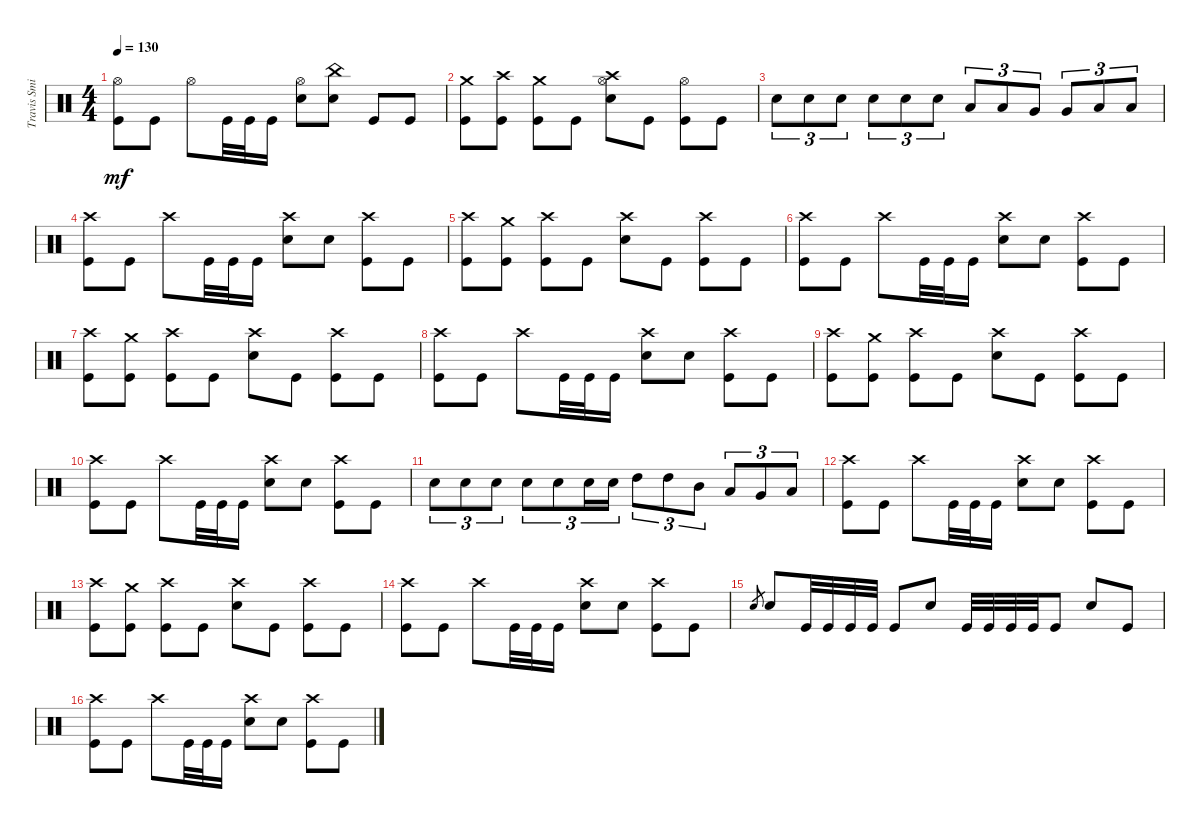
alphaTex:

\track ("Travis Smith" "Travis Smi") {instrument percussion}
\staff {score}
\articulation defaults
\ts (4 4)
\tempo 130
\clef neutral
\ks c
("Hi-Hat (open)" "Kick (hit)").8{dy mf} "Kick (hit)".8 "Hi-Hat (open)".8 "Kick (hit)".32 "Kick (hit)".32 "Kick (hit)".16 ("Hi-Hat (open)" "Snare (hit) 2").8 ("China (hit)" "Snare (hit) 2").8 "Kick (hit)".8 "Kick (hit)".8 |
("Crash medium (hit)" "Kick (hit)").8 ("Crash high (hit)" "Kick (hit)").8 ("Crash medium (hit)" "Kick (hit)").8 "Kick (hit)".8 ("Crash high (hit)" "Hi-Hat (open)" "Snare (hit) 2").8 "Kick (hit)".8 ("Hi-Hat (open)" "Kick (hit)").8 "Kick (hit)".8 |
"Snare (hit) 2".8{tu (3 2)} "Snare (hit) 2".8{tu (3 2)} "Snare (hit) 2".8{tu (3 2)} "Snare (hit) 2".8{tu (3 2)} "Snare (hit) 2".8{tu (3 2)} "Snare (hit) 2".8{tu (3 2)} "Low Tom (hit)".8{tu (3 2)} "Low Tom (hit)".8{tu (3 2)} "Very Low Tom (hit)".8{tu (3 2)} "Very Low Tom (hit)".8{tu (3 2)} "Low Floor Tom (hit)".8{tu (3 2)} "Low Floor Tom (hit)".8{tu (3 2)} |
("Crash high (hit)" "Kick (hit)").8 "Kick (hit)".8 "Crash high (hit)".8 "Kick (hit)".32 "Kick (hit)".32 "Kick (hit)".16 ("Crash high (hit)" "Snare (hit) 2").8 "Snare (hit) 2".8 ("Crash high (hit)" "Kick (hit)").8 "Kick (hit)".8 |
("Crash high (hit)" "Kick (hit)").8 ("Crash medium (hit)" "Kick (hit)").8 ("Crash high (hit)" "Kick (hit)").8 "Kick (hit)".8 ("Crash high (hit)" "Snare (hit) 2").8 "Kick (hit)".8 ("Crash high (hit)" "Kick (hit)").8 "Kick (hit)".8 |
("Crash high (hit)" "Kick (hit)").8 "Kick (hit)".8 "Crash high (hit)".8 "Kick (hit)".32 "Kick (hit)".32 "Kick (hit)".16 ("Crash high (hit)" "Snare (hit) 2").8 "Snare (hit) 2".8 ("Crash high (hit)" "Kick (hit)").8 "Kick (hit)".8 |
("Crash high (hit)" "Kick (hit)").8 ("Crash medium (hit)" "Kick (hit)").8 ("Crash high (hit)" "Kick (hit)").8 "Kick (hit)".8 ("Crash high (hit)" "Snare (hit) 2").8 "Kick (hit)".8 ("Crash high (hit)" "Kick (hit)").8 "Kick (hit)".8 |
("Crash high (hit)" "Kick (hit)").8 "Kick (hit)".8 "Crash high (hit)".8 "Kick (hit)".32 "Kick (hit)".32 "Kick (hit)".16 ("Crash high (hit)" "Snare (hit) 2").8 "Snare (hit) 2".8 ("Crash high (hit)" "Kick (hit)").8 "Kick (hit)".8 |
("Crash high (hit)" "Kick (hit)").8 ("Crash medium (hit)" "Kick (hit)").8 ("Crash high (hit)" "Kick (hit)").8 "Kick (hit)".8 ("Crash high (hit)" "Snare (hit) 2").8 "Kick (hit)".8 ("Crash high (hit)" "Kick (hit)").8 "Kick (hit)".8 |
("Crash high (hit)" "Kick (hit)").8 "Kick (hit)".8 "Crash high (hit)".8 "Kick (hit)".32 "Kick (hit)".32 "Kick (hit)".16 ("Crash high (hit)" "Snare (hit) 2").8 "Snare (hit) 2".8 ("Crash high (hit)" "Kick (hit)").8 "Kick (hit)".8 |
"Snare (hit) 2".8{tu (3 2)} "Snare (hit) 2".8{tu (3 2)} "Snare (hit) 2".8{tu (3 2)} "Snare (hit) 2".8{tu (3 2)} "Snare (hit) 2".8{tu (3 2)} "Snare (hit) 2".16{tu (3 2)} "Snare (hit) 2".16{tu (3 2)} "High Tom (hit)".8{tu (3 2)} "High Tom (hit)".8{tu (3 2)} "Mid Tom (hit)".8{tu (3 2)} "Low Tom (hit)".8{tu (3 2)} "Very Low Tom (hit)".8{tu (3 2)} "Low Floor Tom (hit)".8{tu (3 2)} |
("Crash high (hit)" "Kick (hit)").8 "Kick (hit)".8 "Crash high (hit)".8 "Kick (hit)".32 "Kick (hit)".32 "Kick (hit)".16 ("Crash high (hit)" "Snare (hit) 2").8 "Snare (hit) 2".8 ("Crash high (hit)" "Kick (hit)").8 "Kick (hit)".8 |
("Crash high (hit)" "Kick (hit)").8 ("Crash medium (hit)" "Kick (hit)").8 ("Crash high (hit)" "Kick (hit)").8 "Kick (hit)".8 ("Crash high (hit)" "Snare (hit) 2").8 "Kick (hit)".8 ("Crash high (hit)" "Kick (hit)").8 "Kick (hit)".8 |
("Crash high (hit)" "Kick (hit)").8 "Kick (hit)".8 "Crash high (hit)".8 "Kick (hit)".32 "Kick (hit)".32 "Kick (hit)".16 ("Crash high (hit)" "Snare (hit) 2").8 "Snare (hit) 2".8 ("Crash high (hit)" "Kick (hit)").8 "Kick (hit)".8 |
"Snare (hit)".8{gr} "Snare (hit) 2".8 "Kick (hit)".32 "Kick (hit)".32 "Kick (hit)".32 "Kick (hit)".32 "Kick (hit)".8 "Snare (hit) 2".8 "Kick (hit)".32 "Kick (hit)".32 "Kick (hit)".32 "Kick (hit)".32 "Kick (hit)".8 "Snare (hit) 2".8 "Kick (hit)".8 |
("Crash high (hit)" "Kick (hit)").8 "Kick (hit)".8 "Crash high (hit)".8 "Kick (hit)".32 "Kick (hit)".32 "Kick (hit)".16 ("Crash high (hit)" "Snare (hit) 2").8 "Snare (hit) 2".8 ("Crash high (hit)" "Kick (hit)").8 "Kick (hit)".8
